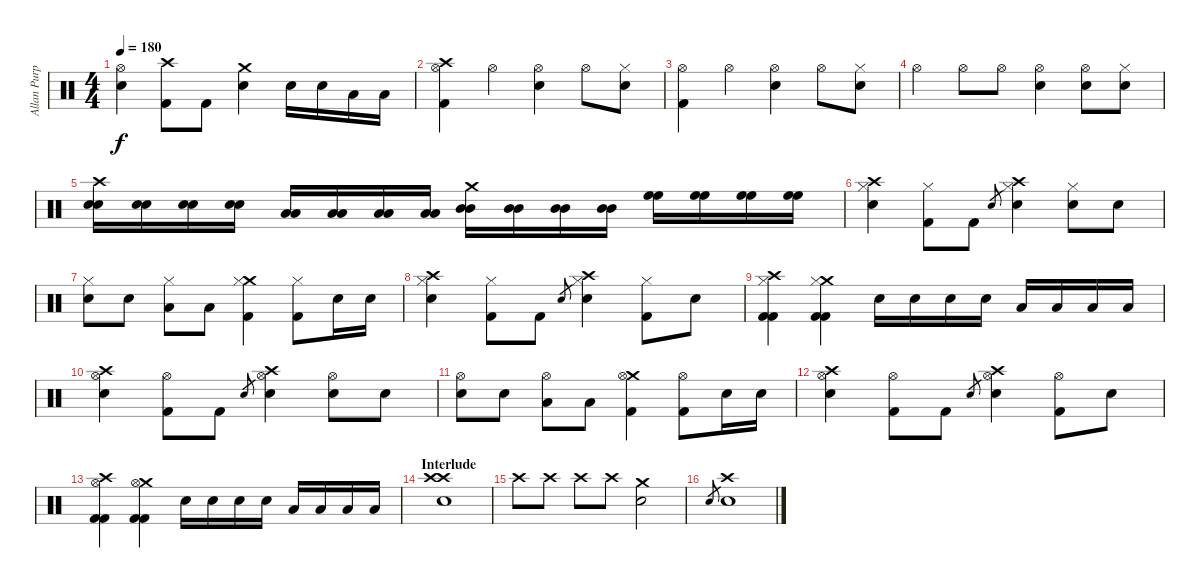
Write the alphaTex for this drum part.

\track ("Allan Purple" "Allan Purp") {instrument percussion}
\staff {score}
\articulation defaults
\ts (4 4)
\tempo 180
\clef neutral
\ks c
("Hi-Hat (open)" "Electric Snare (hit)").4{dy f} ("Crash high (hit)" "Kick (hit) 2").8 "Kick (hit) 2".8 ("Crash medium (hit)" "Snare (hit) 2").4 "Electric Snare (hit)".16 "Electric Snare (hit)".16 "Low Tom (hit)".16 "Low Tom (hit)".16 |
("Crash high (hit)" "Hi-Hat (open)" "Kick (hit) 2").4 "Hi-Hat (open)".4 ("Hi-Hat (open)" "Snare (hit) 2").4 "Hi-Hat (open)".8 ("Hi-Hat (closed)" "Snare (hit) 2").8 |
("Hi-Hat (open)" "Kick (hit) 2").4 "Hi-Hat (open)".4 ("Hi-Hat (open)" "Snare (hit) 2").4 "Hi-Hat (open)".8 ("Hi-Hat (closed)" "Snare (hit) 2").8 |
"Hi-Hat (open)".4 "Hi-Hat (open)".8 "Hi-Hat (open)".8 ("Hi-Hat (open)" "Snare (hit) 2").4 ("Hi-Hat (open)" "Electric Snare (hit)").8 ("Hi-Hat (closed)" "Electric Snare (hit)").8 |
("Crash high (hit)" "Electric Snare (hit)" "Electric Snare (hit)").16 ("Electric Snare (hit)" "Electric Snare (hit)").16 ("Electric Snare (hit)" "Electric Snare (hit)").16 ("Electric Snare (hit)" "Electric Snare (hit)").16 ("Low Tom (hit)" "Low Tom (hit)").16 ("Low Tom (hit)" "Low Tom (hit)").16 ("Low Tom (hit)" "Low Tom (hit)").16 ("Low Tom (hit)" "Low Tom (hit)").16 ("Crash medium (hit)" "Mid Tom (hit)" "Mid Tom (hit)").16 ("Mid Tom (hit)" "Mid Tom (hit)").16 ("Mid Tom (hit)" "Mid Tom (hit)").16 ("Mid Tom (hit)" "Mid Tom (hit)").16 ("High Floor Tom (hit)" "High Floor Tom (hit)").16 ("High Floor Tom (hit)" "High Floor Tom (hit)").16 ("High Floor Tom (hit)" "High Floor Tom (hit)").16 ("High Floor Tom (hit)" "High Floor Tom (hit)").16 |
("Crash high (hit)" "Hi-Hat (closed)" "Snare (hit) 2").4 ("Hi-Hat (closed)" "Kick (hit) 2").8 "Kick (hit) 2".8 "Snare (hit) 2".8{gr} ("Crash high (hit)" "Hi-Hat (closed)" "Snare (hit) 2").4 ("Hi-Hat (closed)" "Snare (hit) 2").8 "Snare (hit) 2".8 |
("Hi-Hat (closed)" "Electric Snare (hit)").8 "Electric Snare (hit)".8 ("Hi-Hat (closed)" "Low Tom (hit)").8 "Low Tom (hit)".8 ("Crash medium (hit)" "Hi-Hat (closed)" "Kick (hit) 2").4 ("Hi-Hat (closed)" "Kick (hit) 2").8 "Electric Snare (hit)".16 "Electric Snare (hit)".16 |
("Crash high (hit)" "Hi-Hat (closed)" "Snare (hit) 2").4 ("Hi-Hat (closed)" "Kick (hit) 2").8 "Kick (hit) 2".8 "Snare (hit) 2".8{gr} ("Crash high (hit)" "Hi-Hat (closed)" "Snare (hit) 2").4 ("Hi-Hat (closed)" "Kick (hit) 2").8 "Snare (hit) 2".8 |
("Crash high (hit)" "Hi-Hat (closed)" "Kick (hit) 2" "Kick (hit) 2").4 ("Crash medium (hit)" "Hi-Hat (closed)" "Kick (hit) 2" "Kick (hit) 2").4 "Electric Snare (hit)".16 "Electric Snare (hit)".16 "Electric Snare (hit)".16 "Electric Snare (hit)".16 "Low Tom (hit)".16 "Low Tom (hit)".16 "Low Tom (hit)".16 "Low Tom (hit)".16 |
("Crash high (hit)" "Hi-Hat (open)" "Snare (hit) 2").4 ("Hi-Hat (open)" "Kick (hit) 2").8 "Kick (hit) 2".8 "Snare (hit) 2".8{gr} ("Crash high (hit)" "Hi-Hat (open)" "Snare (hit) 2").4 ("Hi-Hat (open)" "Snare (hit) 2").8 "Snare (hit) 2".8 |
("Hi-Hat (open)" "Electric Snare (hit)").8 "Electric Snare (hit)".8 ("Hi-Hat (open)" "Low Tom (hit)").8 "Low Tom (hit)".8 ("Crash medium (hit)" "Hi-Hat (open)" "Kick (hit) 2").4 ("Hi-Hat (open)" "Kick (hit) 2").8 "Electric Snare (hit)".16 "Electric Snare (hit)".16 |
("Crash high (hit)" "Hi-Hat (open)" "Snare (hit) 2").4 ("Hi-Hat (open)" "Kick (hit) 2").8 "Kick (hit) 2".8 "Snare (hit) 2".8{gr} ("Crash high (hit)" "Hi-Hat (open)" "Snare (hit) 2").4 ("Hi-Hat (open)" "Kick (hit) 2").8 "Snare (hit) 2".8 |
("Crash high (hit)" "Hi-Hat (open)" "Kick (hit) 2" "Kick (hit) 2").4 ("Crash medium (hit)" "Hi-Hat (open)" "Kick (hit) 2" "Kick (hit) 2").4 "Electric Snare (hit)".16 "Electric Snare (hit)".16 "Electric Snare (hit)".16 "Electric Snare (hit)".16 "Low Tom (hit)".16 "Low Tom (hit)".16 "Low Tom (hit)".16 "Low Tom (hit)".16 |
\section ("" "Interlude")
("Crash high (hit)" "Crash high (hit)" "Snare (hit) 2").1 |
"Crash high (hit)".8 "Crash high (hit)".8 "Crash high (hit)".8 "Crash high (hit)".8 ("Crash medium (hit)" "Electric Snare (hit)").2 |
"Snare (hit) 2".8{gr} ("Crash high (hit)" "Snare (hit) 2").1
